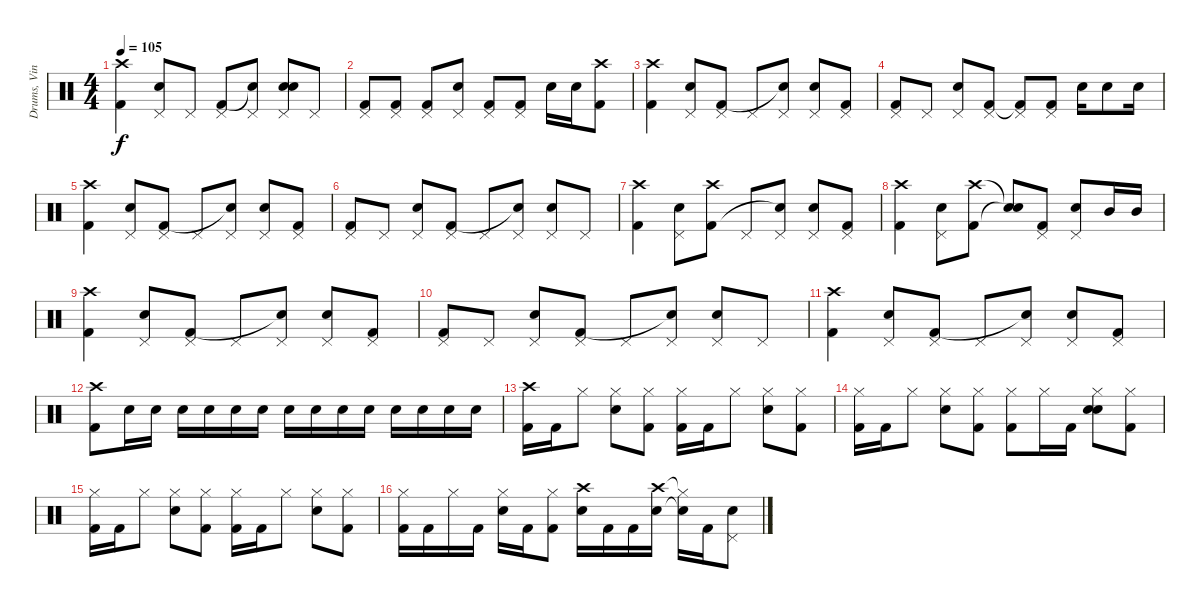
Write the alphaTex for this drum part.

\track ("Drums, Vinnie" "Drums, Vin") {instrument percussion}
\staff {score}
\articulation defaults
\ts (4 4)
\tempo 105
\clef neutral
\ks c
("Crash high (hit)" "Kick (hit) 2").4{dy f} ("Pedal Hi-Hat (hit)" "Electric Snare (hit)").8 "Pedal Hi-Hat (hit)".8 ("Pedal Hi-Hat (hit)" "Kick (hit) 2").8 ("Pedal Hi-Hat (hit)" "Snare (hit)"{t}).8 ("Pedal Hi-Hat (hit)" "Electric Snare (hit)" "Snare (hit)").8 "Pedal Hi-Hat (hit)".8 |
("Pedal Hi-Hat (hit)" "Kick (hit) 2").8 ("Pedal Hi-Hat (hit)" "Kick (hit) 2").8 ("Pedal Hi-Hat (hit)" "Kick (hit) 2").8 ("Pedal Hi-Hat (hit)" "Electric Snare (hit)").8 ("Pedal Hi-Hat (hit)" "Kick (hit) 2").8 ("Pedal Hi-Hat (hit)" "Kick (hit) 2").8 "Electric Snare (hit)".16 "Electric Snare (hit)".16 ("Crash high (hit)" "Kick (hit) 2").8 |
("Crash high (hit)" "Kick (hit) 2").4 ("Pedal Hi-Hat (hit)" "Electric Snare (hit)").8 ("Pedal Hi-Hat (hit)" "Kick (hit) 2").8 "Pedal Hi-Hat (hit)".8 ("Pedal Hi-Hat (hit)" "Snare (hit)"{t}).8 ("Pedal Hi-Hat (hit)" "Electric Snare (hit)").8 ("Pedal Hi-Hat (hit)" "Kick (hit) 2").8 |
("Pedal Hi-Hat (hit)" "Kick (hit) 2").8 "Pedal Hi-Hat (hit)".8 ("Pedal Hi-Hat (hit)" "Electric Snare (hit)").8 ("Pedal Hi-Hat (hit)" "Kick (hit) 2").8 ("Pedal Hi-Hat (hit)" "Kick (hit) 2"{t}).8 ("Pedal Hi-Hat (hit)" "Kick (hit) 2").8 "Electric Snare (hit)".16 "Electric Snare (hit)".8 "Electric Snare (hit)".16 |
("Crash high (hit)" "Kick (hit) 2").4 ("Pedal Hi-Hat (hit)" "Electric Snare (hit)").8 ("Pedal Hi-Hat (hit)" "Kick (hit) 2").8 "Pedal Hi-Hat (hit)".8 ("Pedal Hi-Hat (hit)" "Snare (hit)"{t}).8 ("Pedal Hi-Hat (hit)" "Electric Snare (hit)").8 ("Pedal Hi-Hat (hit)" "Kick (hit) 2").8 |
("Pedal Hi-Hat (hit)" "Kick (hit) 2").8 "Pedal Hi-Hat (hit)".8 ("Pedal Hi-Hat (hit)" "Electric Snare (hit)").8 ("Pedal Hi-Hat (hit)" "Kick (hit) 2").8 "Pedal Hi-Hat (hit)".8 ("Pedal Hi-Hat (hit)" "Snare (hit)"{t}).8 ("Pedal Hi-Hat (hit)" "Electric Snare (hit)").8 "Pedal Hi-Hat (hit)".8 |
("Crash high (hit)" "Kick (hit) 2").4 ("Pedal Hi-Hat (hit)" "Electric Snare (hit)").8 ("Crash high (hit)" "Kick (hit) 2").8 "Pedal Hi-Hat (hit)".8 ("Pedal Hi-Hat (hit)" "Snare (hit)"{t}).8 ("Pedal Hi-Hat (hit)" "Electric Snare (hit)").8 ("Pedal Hi-Hat (hit)" "Kick (hit) 2").8 |
("Crash high (hit)" "Kick (hit) 2").4 ("Pedal Hi-Hat (hit)" "Electric Snare (hit)").8 ("Crash high (hit)" "Kick (hit) 2").8 ("Snare (hit)"{t} "Snare (hit)"{t}).8 ("Pedal Hi-Hat (hit)" "Kick (hit) 2").8 ("Pedal Hi-Hat (hit)" "Electric Snare (hit)").8 "Mid Tom (hit)".16 "Mid Tom (hit)".16 |
("Crash high (hit)" "Kick (hit) 2").4 ("Pedal Hi-Hat (hit)" "Electric Snare (hit)").8 ("Pedal Hi-Hat (hit)" "Kick (hit) 2").8 "Pedal Hi-Hat (hit)".8 ("Pedal Hi-Hat (hit)" "Snare (hit)"{t}).8 ("Pedal Hi-Hat (hit)" "Electric Snare (hit)").8 ("Pedal Hi-Hat (hit)" "Kick (hit) 2").8 |
("Pedal Hi-Hat (hit)" "Kick (hit) 2").8 "Pedal Hi-Hat (hit)".8 ("Pedal Hi-Hat (hit)" "Electric Snare (hit)").8 ("Pedal Hi-Hat (hit)" "Kick (hit) 2").8 "Pedal Hi-Hat (hit)".8 ("Pedal Hi-Hat (hit)" "Snare (hit)"{t}).8 ("Pedal Hi-Hat (hit)" "Electric Snare (hit)").8 "Pedal Hi-Hat (hit)".8 |
("Crash high (hit)" "Kick (hit) 2").4 ("Pedal Hi-Hat (hit)" "Electric Snare (hit)").8 ("Pedal Hi-Hat (hit)" "Kick (hit) 2").8 "Pedal Hi-Hat (hit)".8 ("Pedal Hi-Hat (hit)" "Snare (hit)"{t}).8 ("Pedal Hi-Hat (hit)" "Electric Snare (hit)").8 ("Pedal Hi-Hat (hit)" "Kick (hit) 2").8 |
("Crash high (hit)" "Kick (hit) 2").8 "Electric Snare (hit)".16 "Electric Snare (hit)".16 "Electric Snare (hit)".16 "Electric Snare (hit)".16 "Electric Snare (hit)".16 "Electric Snare (hit)".16 "Electric Snare (hit)".16 "Electric Snare (hit)".16 "Electric Snare (hit)".16 "Electric Snare (hit)".16 "Electric Snare (hit)".16 "Electric Snare (hit)".16 "Electric Snare (hit)".16 "Electric Snare (hit)".16 |
("Crash high (hit)" "Kick (hit) 2").16 "Kick (hit) 2".16 "Hi-Hat (closed)".8 ("Hi-Hat (closed)" "Electric Snare (hit)").8 ("Hi-Hat (closed)" "Kick (hit) 2").8 ("Hi-Hat (closed)" "Kick (hit) 2").16 "Kick (hit) 2".16 "Hi-Hat (closed)".8 ("Hi-Hat (closed)" "Electric Snare (hit)").8 ("Hi-Hat (closed)" "Kick (hit) 2").8 |
("Hi-Hat (closed)" "Kick (hit) 2").16 "Kick (hit) 2".16 "Hi-Hat (closed)".8 ("Hi-Hat (closed)" "Electric Snare (hit)").8 ("Hi-Hat (closed)" "Kick (hit) 2").8 ("Hi-Hat (closed)" "Kick (hit) 2").8 "Hi-Hat (closed)".16 "Kick (hit) 2".16 ("Hi-Hat (closed)" "Electric Snare (hit)" "Snare (hit)").8 ("Hi-Hat (closed)" "Kick (hit) 2").8 |
("Hi-Hat (closed)" "Kick (hit) 2").16 "Kick (hit) 2".16 "Hi-Hat (closed)".8 ("Hi-Hat (closed)" "Electric Snare (hit)").8 ("Hi-Hat (closed)" "Kick (hit) 2").8 ("Hi-Hat (closed)" "Kick (hit) 2").16 "Kick (hit) 2".16 "Hi-Hat (closed)".8 ("Hi-Hat (closed)" "Electric Snare (hit)").8 ("Hi-Hat (closed)" "Kick (hit) 2").8 |
("Hi-Hat (closed)" "Kick (hit) 2").16 "Kick (hit) 2".16 "Hi-Hat (closed)".16 "Kick (hit) 2".16 ("Hi-Hat (closed)" "Electric Snare (hit)").16 "Kick (hit) 2".16 ("Hi-Hat (closed)" "Kick (hit) 2").8 ("Crash high (hit)" "Electric Snare (hit)").16 "Kick (hit) 2".16 "Kick (hit) 2".16 ("Crash high (hit)" "Electric Snare (hit)").16 ("Hi-Hat (closed)"{t} "Snare (hit)"{t}).16 "Kick (hit) 2".16 ("Pedal Hi-Hat (hit)" "Electric Snare (hit)").8
